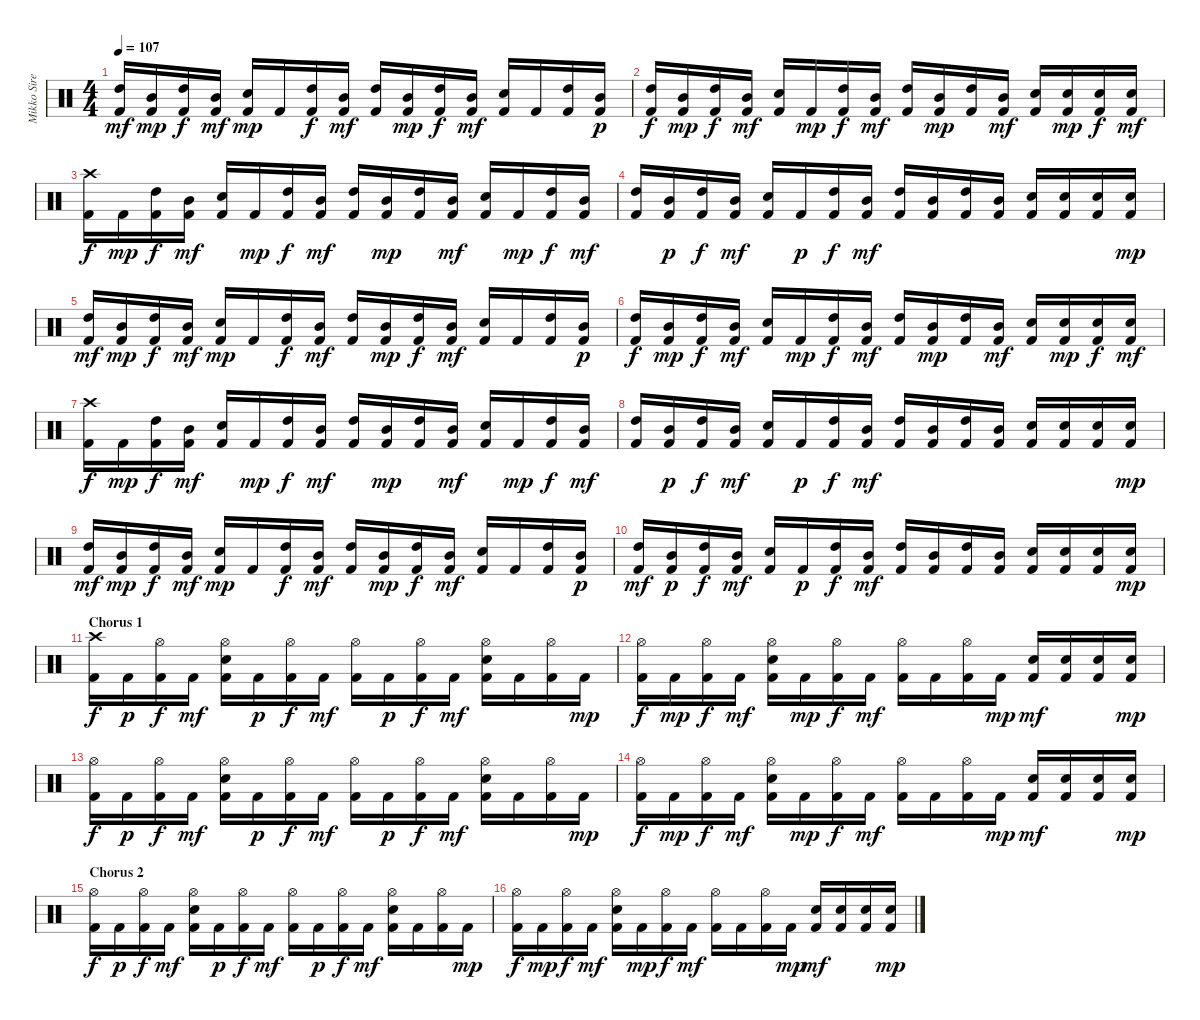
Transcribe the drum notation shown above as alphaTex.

\track ("Mikko Siren" "Mikko Sire") {instrument percussion}
\staff {score}
\articulation defaults
\ts (4 4)
\tempo 107
\clef neutral
\ks c
("Kick (hit) 2" "High Tom (hit)").16{dy mf} ("Kick (hit) 2" "Mid Tom (hit)").16{dy mp} ("Kick (hit) 2" "High Tom (hit)").16{dy f} ("Kick (hit) 2" "Mid Tom (hit)").16{dy mf} ("Kick (hit) 2" "Electric Snare (hit)").16{dy mp} "Kick (hit) 2".16 ("Kick (hit) 2" "High Tom (hit)").16{dy f} ("Kick (hit) 2" "Mid Tom (hit)").16{dy mf} ("Kick (hit) 2" "High Tom (hit)").16 ("Kick (hit) 2" "Mid Tom (hit)").16{dy mp} ("Kick (hit) 2" "High Tom (hit)").16{dy f} ("Kick (hit) 2" "Mid Tom (hit)").16{dy mf} ("Kick (hit) 2" "Electric Snare (hit)").16 "Kick (hit) 2".16 ("Kick (hit) 2" "High Tom (hit)").16 ("Kick (hit) 2" "Mid Tom (hit)").16{dy p} |
("Kick (hit) 2" "High Tom (hit)").16{dy f} ("Kick (hit) 2" "Mid Tom (hit)").16{dy mp} ("Kick (hit) 2" "High Tom (hit)").16{dy f} ("Kick (hit) 2" "Mid Tom (hit)").16{dy mf} ("Kick (hit) 2" "Electric Snare (hit)").16 "Kick (hit) 2".16{dy mp} ("Kick (hit) 2" "High Tom (hit)").16{dy f} ("Kick (hit) 2" "Mid Tom (hit)").16{dy mf} ("Kick (hit) 2" "High Tom (hit)").16 ("Kick (hit) 2" "Mid Tom (hit)").16{dy mp} ("Kick (hit) 2" "High Tom (hit)").16 ("Kick (hit) 2" "Mid Tom (hit)").16{dy mf} ("Kick (hit) 2" "Electric Snare (hit)").16 ("Kick (hit) 2" "Electric Snare (hit)").16{dy mp} ("Kick (hit) 2" "Electric Snare (hit)").16{dy f} ("Kick (hit) 2" "Electric Snare (hit)").16{dy mf} |
("Kick (hit) 2" "Crash high (hit)").16{dy f} "Kick (hit) 2".16{dy mp} ("Kick (hit) 2" "High Tom (hit)").16{dy f} ("Kick (hit) 2" "Mid Tom (hit)").16{dy mf} ("Kick (hit) 2" "Electric Snare (hit)").16 "Kick (hit) 2".16{dy mp} ("Kick (hit) 2" "High Tom (hit)").16{dy f} ("Kick (hit) 2" "Mid Tom (hit)").16{dy mf} ("Kick (hit) 2" "High Tom (hit)").16 ("Kick (hit) 2" "Mid Tom (hit)").16{dy mp} ("Kick (hit) 2" "High Tom (hit)").16 ("Kick (hit) 2" "Mid Tom (hit)").16{dy mf} ("Kick (hit) 2" "Electric Snare (hit)").16 "Kick (hit) 2".16{dy mp} ("Kick (hit) 2" "High Tom (hit)").16{dy f} ("Kick (hit) 2" "Mid Tom (hit)").16{dy mf} |
("Kick (hit) 2" "High Tom (hit)").16 ("Kick (hit) 2" "Mid Tom (hit)").16{dy p} ("Kick (hit) 2" "High Tom (hit)").16{dy f} ("Kick (hit) 2" "Mid Tom (hit)").16{dy mf} ("Kick (hit) 2" "Electric Snare (hit)").16 "Kick (hit) 2".16{dy p} ("Kick (hit) 2" "High Tom (hit)").16{dy f} ("Kick (hit) 2" "Mid Tom (hit)").16{dy mf} ("Kick (hit) 2" "High Tom (hit)").16 ("Kick (hit) 2" "Mid Tom (hit)").16 ("Kick (hit) 2" "High Tom (hit)").16 ("Kick (hit) 2" "Mid Tom (hit)").16 ("Kick (hit) 2" "Electric Snare (hit)").16 ("Kick (hit) 2" "Electric Snare (hit)").16 ("Kick (hit) 2" "Electric Snare (hit)").16 ("Kick (hit) 2" "Electric Snare (hit)").16{dy mp} |
("Kick (hit) 2" "High Tom (hit)").16{dy mf} ("Kick (hit) 2" "Mid Tom (hit)").16{dy mp} ("Kick (hit) 2" "High Tom (hit)").16{dy f} ("Kick (hit) 2" "Mid Tom (hit)").16{dy mf} ("Kick (hit) 2" "Electric Snare (hit)").16{dy mp} "Kick (hit) 2".16 ("Kick (hit) 2" "High Tom (hit)").16{dy f} ("Kick (hit) 2" "Mid Tom (hit)").16{dy mf} ("Kick (hit) 2" "High Tom (hit)").16 ("Kick (hit) 2" "Mid Tom (hit)").16{dy mp} ("Kick (hit) 2" "High Tom (hit)").16{dy f} ("Kick (hit) 2" "Mid Tom (hit)").16{dy mf} ("Kick (hit) 2" "Electric Snare (hit)").16 "Kick (hit) 2".16 ("Kick (hit) 2" "High Tom (hit)").16 ("Kick (hit) 2" "Mid Tom (hit)").16{dy p} |
("Kick (hit) 2" "High Tom (hit)").16{dy f} ("Kick (hit) 2" "Mid Tom (hit)").16{dy mp} ("Kick (hit) 2" "High Tom (hit)").16{dy f} ("Kick (hit) 2" "Mid Tom (hit)").16{dy mf} ("Kick (hit) 2" "Electric Snare (hit)").16 "Kick (hit) 2".16{dy mp} ("Kick (hit) 2" "High Tom (hit)").16{dy f} ("Kick (hit) 2" "Mid Tom (hit)").16{dy mf} ("Kick (hit) 2" "High Tom (hit)").16 ("Kick (hit) 2" "Mid Tom (hit)").16{dy mp} ("Kick (hit) 2" "High Tom (hit)").16 ("Kick (hit) 2" "Mid Tom (hit)").16{dy mf} ("Kick (hit) 2" "Electric Snare (hit)").16 ("Kick (hit) 2" "Electric Snare (hit)").16{dy mp} ("Kick (hit) 2" "Electric Snare (hit)").16{dy f} ("Kick (hit) 2" "Electric Snare (hit)").16{dy mf} |
("Kick (hit) 2" "Crash high (hit)").16{dy f} "Kick (hit) 2".16{dy mp} ("Kick (hit) 2" "High Tom (hit)").16{dy f} ("Kick (hit) 2" "Mid Tom (hit)").16{dy mf} ("Kick (hit) 2" "Electric Snare (hit)").16 "Kick (hit) 2".16{dy mp} ("Kick (hit) 2" "High Tom (hit)").16{dy f} ("Kick (hit) 2" "Mid Tom (hit)").16{dy mf} ("Kick (hit) 2" "High Tom (hit)").16 ("Kick (hit) 2" "Mid Tom (hit)").16{dy mp} ("Kick (hit) 2" "High Tom (hit)").16 ("Kick (hit) 2" "Mid Tom (hit)").16{dy mf} ("Kick (hit) 2" "Electric Snare (hit)").16 "Kick (hit) 2".16{dy mp} ("Kick (hit) 2" "High Tom (hit)").16{dy f} ("Kick (hit) 2" "Mid Tom (hit)").16{dy mf} |
("Kick (hit) 2" "High Tom (hit)").16 ("Kick (hit) 2" "Mid Tom (hit)").16{dy p} ("Kick (hit) 2" "High Tom (hit)").16{dy f} ("Kick (hit) 2" "Mid Tom (hit)").16{dy mf} ("Kick (hit) 2" "Electric Snare (hit)").16 "Kick (hit) 2".16{dy p} ("Kick (hit) 2" "High Tom (hit)").16{dy f} ("Kick (hit) 2" "Mid Tom (hit)").16{dy mf} ("Kick (hit) 2" "High Tom (hit)").16 ("Kick (hit) 2" "Mid Tom (hit)").16 ("Kick (hit) 2" "High Tom (hit)").16 ("Kick (hit) 2" "Mid Tom (hit)").16 ("Kick (hit) 2" "Electric Snare (hit)").16 ("Kick (hit) 2" "Electric Snare (hit)").16 ("Kick (hit) 2" "Electric Snare (hit)").16 ("Kick (hit) 2" "Electric Snare (hit)").16{dy mp} |
("Kick (hit) 2" "High Tom (hit)").16{dy mf} ("Kick (hit) 2" "Mid Tom (hit)").16{dy mp} ("Kick (hit) 2" "High Tom (hit)").16{dy f} ("Kick (hit) 2" "Mid Tom (hit)").16{dy mf} ("Kick (hit) 2" "Electric Snare (hit)").16{dy mp} "Kick (hit) 2".16 ("Kick (hit) 2" "High Tom (hit)").16{dy f} ("Kick (hit) 2" "Mid Tom (hit)").16{dy mf} ("Kick (hit) 2" "High Tom (hit)").16 ("Kick (hit) 2" "Mid Tom (hit)").16{dy mp} ("Kick (hit) 2" "High Tom (hit)").16{dy f} ("Kick (hit) 2" "Mid Tom (hit)").16{dy mf} ("Kick (hit) 2" "Electric Snare (hit)").16 "Kick (hit) 2".16 ("Kick (hit) 2" "High Tom (hit)").16 ("Kick (hit) 2" "Mid Tom (hit)").16{dy p} |
("Kick (hit) 2" "High Tom (hit)").16{dy mf} ("Kick (hit) 2" "Mid Tom (hit)").16{dy p} ("Kick (hit) 2" "High Tom (hit)").16{dy f} ("Kick (hit) 2" "Mid Tom (hit)").16{dy mf} ("Kick (hit) 2" "Electric Snare (hit)").16 "Kick (hit) 2".16{dy p} ("Kick (hit) 2" "High Tom (hit)").16{dy f} ("Kick (hit) 2" "Mid Tom (hit)").16{dy mf} ("Kick (hit) 2" "High Tom (hit)").16 ("Kick (hit) 2" "Mid Tom (hit)").16 ("Kick (hit) 2" "High Tom (hit)").16 ("Kick (hit) 2" "Mid Tom (hit)").16 ("Kick (hit) 2" "Electric Snare (hit)").16 ("Kick (hit) 2" "Electric Snare (hit)").16 ("Kick (hit) 2" "Electric Snare (hit)").16 ("Kick (hit) 2" "Electric Snare (hit)").16{dy mp} |
\section ("" "Chorus 1")
("Kick (hit) 2" "Crash high (hit)").16{dy f} "Kick (hit) 2".16{dy p} ("Kick (hit) 2" "Hi-Hat (open)").16{dy f} "Kick (hit) 2".16{dy mf} ("Kick (hit) 2" "Electric Snare (hit)" "Hi-Hat (open)").16 "Kick (hit) 2".16{dy p} ("Kick (hit) 2" "Hi-Hat (open)").16{dy f} "Kick (hit) 2".16{dy mf} ("Kick (hit) 2" "Hi-Hat (open)").16 "Kick (hit) 2".16{dy p} ("Kick (hit) 2" "Hi-Hat (open)").16{dy f} "Kick (hit) 2".16{dy mf} ("Kick (hit) 2" "Electric Snare (hit)" "Hi-Hat (open)").16 "Kick (hit) 2".16 ("Kick (hit) 2" "Hi-Hat (open)").16 "Kick (hit) 2".16{dy mp} |
("Kick (hit) 2" "Hi-Hat (open)").16{dy f} "Kick (hit) 2".16{dy mp} ("Kick (hit) 2" "Hi-Hat (open)").16{dy f} "Kick (hit) 2".16{dy mf} ("Kick (hit) 2" "Electric Snare (hit)" "Hi-Hat (open)").16 "Kick (hit) 2".16{dy mp} ("Kick (hit) 2" "Hi-Hat (open)").16{dy f} "Kick (hit) 2".16{dy mf} ("Kick (hit) 2" "Hi-Hat (open)").16 "Kick (hit) 2".16 ("Kick (hit) 2" "Hi-Hat (open)").16 "Kick (hit) 2".16{dy mp} ("Kick (hit) 2" "Electric Snare (hit)").16{dy mf} ("Kick (hit) 2" "Electric Snare (hit)").16 ("Kick (hit) 2" "Electric Snare (hit)").16 ("Kick (hit) 2" "Electric Snare (hit)").16{dy mp} |
("Kick (hit) 2" "Hi-Hat (open)").16{dy f} "Kick (hit) 2".16{dy p} ("Kick (hit) 2" "Hi-Hat (open)").16{dy f} "Kick (hit) 2".16{dy mf} ("Kick (hit) 2" "Electric Snare (hit)" "Hi-Hat (open)").16 "Kick (hit) 2".16{dy p} ("Kick (hit) 2" "Hi-Hat (open)").16{dy f} "Kick (hit) 2".16{dy mf} ("Kick (hit) 2" "Hi-Hat (open)").16 "Kick (hit) 2".16{dy p} ("Kick (hit) 2" "Hi-Hat (open)").16{dy f} "Kick (hit) 2".16{dy mf} ("Kick (hit) 2" "Electric Snare (hit)" "Hi-Hat (open)").16 "Kick (hit) 2".16 ("Kick (hit) 2" "Hi-Hat (open)").16 "Kick (hit) 2".16{dy mp} |
("Kick (hit) 2" "Hi-Hat (open)").16{dy f} "Kick (hit) 2".16{dy mp} ("Kick (hit) 2" "Hi-Hat (open)").16{dy f} "Kick (hit) 2".16{dy mf} ("Kick (hit) 2" "Electric Snare (hit)" "Hi-Hat (open)").16 "Kick (hit) 2".16{dy mp} ("Kick (hit) 2" "Hi-Hat (open)").16{dy f} "Kick (hit) 2".16{dy mf} ("Kick (hit) 2" "Hi-Hat (open)").16 "Kick (hit) 2".16 ("Kick (hit) 2" "Hi-Hat (open)").16 "Kick (hit) 2".16{dy mp} ("Kick (hit) 2" "Electric Snare (hit)").16{dy mf} ("Kick (hit) 2" "Electric Snare (hit)").16 ("Kick (hit) 2" "Electric Snare (hit)").16 ("Kick (hit) 2" "Electric Snare (hit)").16{dy mp} |
\section ("" "Chorus 2")
("Kick (hit) 2" "Hi-Hat (open)").16{dy f} "Kick (hit) 2".16{dy p} ("Kick (hit) 2" "Hi-Hat (open)").16{dy f} "Kick (hit) 2".16{dy mf} ("Kick (hit) 2" "Electric Snare (hit)" "Hi-Hat (open)").16 "Kick (hit) 2".16{dy p} ("Kick (hit) 2" "Hi-Hat (open)").16{dy f} "Kick (hit) 2".16{dy mf} ("Kick (hit) 2" "Hi-Hat (open)").16 "Kick (hit) 2".16{dy p} ("Kick (hit) 2" "Hi-Hat (open)").16{dy f} "Kick (hit) 2".16{dy mf} ("Kick (hit) 2" "Electric Snare (hit)" "Hi-Hat (open)").16 "Kick (hit) 2".16 ("Kick (hit) 2" "Hi-Hat (open)").16 "Kick (hit) 2".16{dy mp} |
("Kick (hit) 2" "Hi-Hat (open)").16{dy f} "Kick (hit) 2".16{dy mp} ("Kick (hit) 2" "Hi-Hat (open)").16{dy f} "Kick (hit) 2".16{dy mf} ("Kick (hit) 2" "Electric Snare (hit)" "Hi-Hat (open)").16 "Kick (hit) 2".16{dy mp} ("Kick (hit) 2" "Hi-Hat (open)").16{dy f} "Kick (hit) 2".16{dy mf} ("Kick (hit) 2" "Hi-Hat (open)").16 "Kick (hit) 2".16 ("Kick (hit) 2" "Hi-Hat (open)").16 "Kick (hit) 2".16{dy mp} ("Kick (hit) 2" "Electric Snare (hit)").16{dy mf} ("Kick (hit) 2" "Electric Snare (hit)").16 ("Kick (hit) 2" "Electric Snare (hit)").16 ("Kick (hit) 2" "Electric Snare (hit)").16{dy mp}
